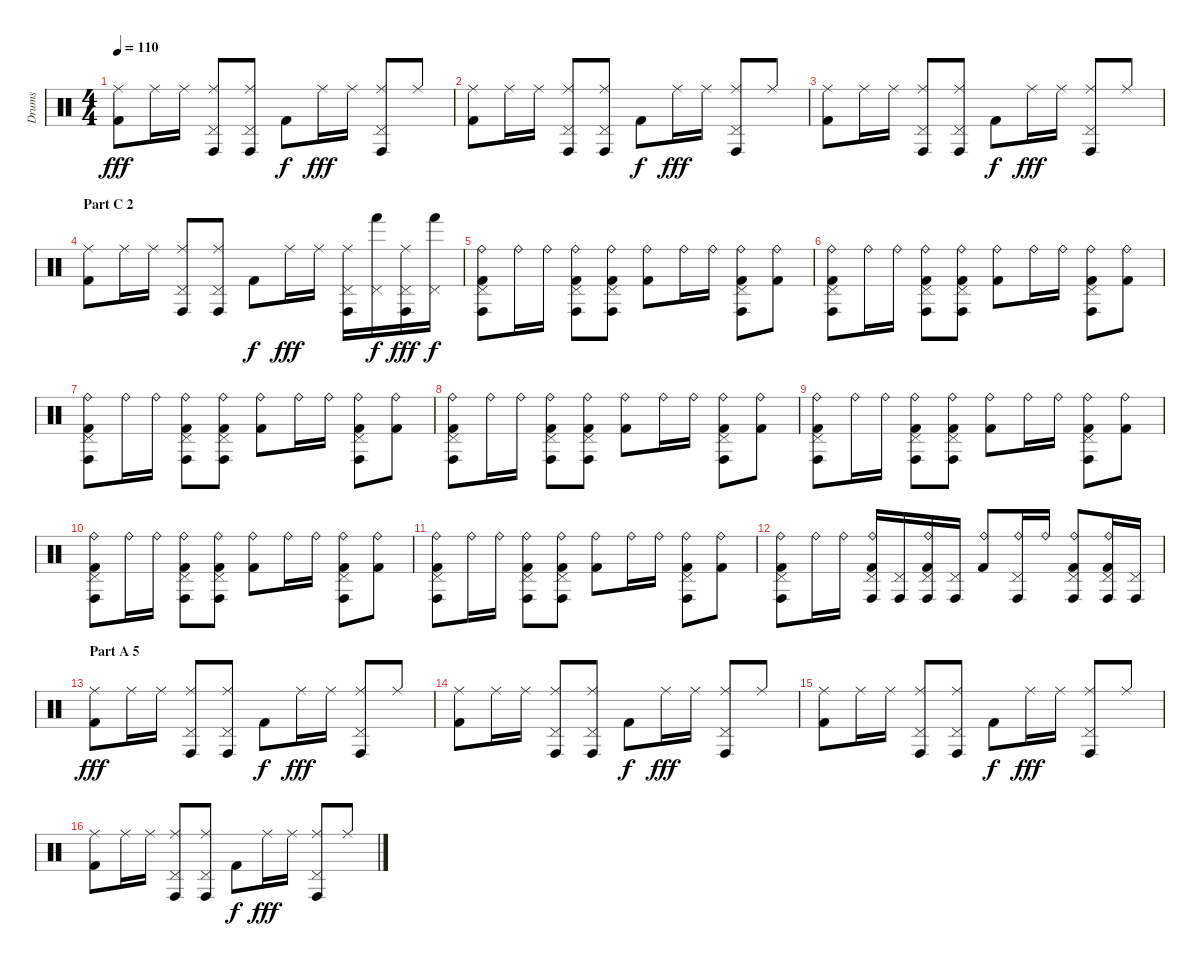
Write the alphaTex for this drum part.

\track ("Drums" "Drums") {instrument percussion}
\staff {score}
\articulation defaults
\ts (4 4)
\tempo 110
\clef neutral
\ks c
("Ride (middle)" "Kick (hit) 2").8{dy fff} "Ride (middle)".16 "Ride (middle)".16 ("Ride (middle)" "Pedal Hi-Hat (hit)" "Conga high (hit)").8 ("Ride (middle)" "Pedal Hi-Hat (hit)" "Conga high (hit)").8 "Kick (hit) 2".8{dy f} "Ride (middle)".16{dy fff} "Ride (middle)".16 ("Ride (middle)" "Pedal Hi-Hat (hit)" "Conga high (hit)").8 "Ride (middle)".8 |
("Ride (middle)" "Kick (hit) 2").8 "Ride (middle)".16 "Ride (middle)".16 ("Ride (middle)" "Pedal Hi-Hat (hit)" "Conga high (hit)").8 ("Ride (middle)" "Pedal Hi-Hat (hit)" "Conga high (hit)").8 "Kick (hit) 2".8{dy f} "Ride (middle)".16{dy fff} "Ride (middle)".16 ("Ride (middle)" "Pedal Hi-Hat (hit)" "Conga high (hit)").8 "Ride (middle)".8 |
("Ride (middle)" "Kick (hit) 2").8 "Ride (middle)".16 "Ride (middle)".16 ("Ride (middle)" "Pedal Hi-Hat (hit)" "Conga high (hit)").8 ("Ride (middle)" "Pedal Hi-Hat (hit)" "Conga high (hit)").8 "Kick (hit) 2".8{dy f} "Ride (middle)".16{dy fff} "Ride (middle)".16 ("Ride (middle)" "Pedal Hi-Hat (hit)" "Conga high (hit)").8 "Ride (middle)".8 |
\section ("" "Part C 2")
("Ride (middle)" "Kick (hit) 2").8 "Ride (middle)".16 "Ride (middle)".16 ("Ride (middle)" "Pedal Hi-Hat (hit)" "Conga high (hit)").8 ("Ride (middle)" "Pedal Hi-Hat (hit)" "Conga high (hit)").8 "Kick (hit) 2".8{dy f} "Ride (middle)".16{dy fff} "Ride (middle)".16 ("Ride (middle)" "Pedal Hi-Hat (hit)" "Conga high (hit)").16 ("Pedal Hi-Hat (hit)" "Hand (hit)").16{dy f} ("Ride (middle)" "Pedal Hi-Hat (hit)" "Conga high (hit)").16{dy fff} ("Pedal Hi-Hat (hit)" "Hand (hit)").16{dy f} |
("Ride (bell)" "Pedal Hi-Hat (hit)" "Conga high (hit)" "Kick (hit) 2").8 "Ride (bell)".16 "Ride (bell)".16 ("Ride (bell)" "Pedal Hi-Hat (hit)" "Conga high (hit)" "Kick (hit) 2").8 ("Ride (bell)" "Pedal Hi-Hat (hit)" "Conga high (hit)" "Kick (hit) 2").8 ("Ride (bell)" "Kick (hit) 2").8 "Ride (bell)".16 "Ride (bell)".16 ("Ride (bell)" "Pedal Hi-Hat (hit)" "Conga high (hit)" "Kick (hit) 2").8 ("Ride (bell)" "Kick (hit) 2").8 |
("Ride (bell)" "Pedal Hi-Hat (hit)" "Conga high (hit)" "Kick (hit) 2").8 "Ride (bell)".16 "Ride (bell)".16 ("Ride (bell)" "Pedal Hi-Hat (hit)" "Conga high (hit)" "Kick (hit) 2").8 ("Ride (bell)" "Pedal Hi-Hat (hit)" "Conga high (hit)" "Kick (hit) 2").8 ("Ride (bell)" "Kick (hit) 2").8 "Ride (bell)".16 "Ride (bell)".16 ("Ride (bell)" "Pedal Hi-Hat (hit)" "Conga high (hit)" "Kick (hit) 2").8 ("Ride (bell)" "Kick (hit) 2").8 |
("Ride (bell)" "Pedal Hi-Hat (hit)" "Conga high (hit)" "Kick (hit) 2").8 "Ride (bell)".16 "Ride (bell)".16 ("Ride (bell)" "Pedal Hi-Hat (hit)" "Conga high (hit)" "Kick (hit) 2").8 ("Ride (bell)" "Pedal Hi-Hat (hit)" "Conga high (hit)" "Kick (hit) 2").8 ("Ride (bell)" "Kick (hit) 2").8 "Ride (bell)".16 "Ride (bell)".16 ("Ride (bell)" "Pedal Hi-Hat (hit)" "Conga high (hit)" "Kick (hit) 2").8 ("Ride (bell)" "Kick (hit) 2").8 |
("Ride (bell)" "Pedal Hi-Hat (hit)" "Conga high (hit)" "Kick (hit) 2").8 "Ride (bell)".16 "Ride (bell)".16 ("Ride (bell)" "Pedal Hi-Hat (hit)" "Conga high (hit)" "Kick (hit) 2").8 ("Ride (bell)" "Pedal Hi-Hat (hit)" "Conga high (hit)" "Kick (hit) 2").8 ("Ride (bell)" "Kick (hit) 2").8 "Ride (bell)".16 "Ride (bell)".16 ("Ride (bell)" "Pedal Hi-Hat (hit)" "Conga high (hit)" "Kick (hit) 2").8 ("Ride (bell)" "Kick (hit) 2").8 |
("Ride (bell)" "Pedal Hi-Hat (hit)" "Conga high (hit)" "Kick (hit) 2").8 "Ride (bell)".16 "Ride (bell)".16 ("Ride (bell)" "Pedal Hi-Hat (hit)" "Conga high (hit)" "Kick (hit) 2").8 ("Ride (bell)" "Pedal Hi-Hat (hit)" "Conga high (hit)" "Kick (hit) 2").8 ("Ride (bell)" "Kick (hit) 2").8 "Ride (bell)".16 "Ride (bell)".16 ("Ride (bell)" "Pedal Hi-Hat (hit)" "Conga high (hit)" "Kick (hit) 2").8 ("Ride (bell)" "Kick (hit) 2").8 |
("Ride (bell)" "Pedal Hi-Hat (hit)" "Conga high (hit)" "Kick (hit) 2").8 "Ride (bell)".16 "Ride (bell)".16 ("Ride (bell)" "Pedal Hi-Hat (hit)" "Conga high (hit)" "Kick (hit) 2").8 ("Ride (bell)" "Pedal Hi-Hat (hit)" "Conga high (hit)" "Kick (hit) 2").8 ("Ride (bell)" "Kick (hit) 2").8 "Ride (bell)".16 "Ride (bell)".16 ("Ride (bell)" "Pedal Hi-Hat (hit)" "Conga high (hit)" "Kick (hit) 2").8 ("Ride (bell)" "Kick (hit) 2").8 |
("Ride (bell)" "Pedal Hi-Hat (hit)" "Conga high (hit)" "Kick (hit) 2").8 "Ride (bell)".16 "Ride (bell)".16 ("Ride (bell)" "Pedal Hi-Hat (hit)" "Conga high (hit)" "Kick (hit) 2").8 ("Ride (bell)" "Pedal Hi-Hat (hit)" "Conga high (hit)" "Kick (hit) 2").8 ("Ride (bell)" "Kick (hit) 2").8 "Ride (bell)".16 "Ride (bell)".16 ("Ride (bell)" "Pedal Hi-Hat (hit)" "Conga high (hit)" "Kick (hit) 2").8 ("Ride (bell)" "Kick (hit) 2").8 |
("Ride (bell)" "Pedal Hi-Hat (hit)" "Conga high (hit)" "Kick (hit) 2").8 "Ride (bell)".16 "Ride (bell)".16 ("Ride (bell)" "Pedal Hi-Hat (hit)" "Conga high (hit)" "Kick (hit) 2").16 ("Pedal Hi-Hat (hit)" "Conga high (hit)").16 ("Ride (bell)" "Pedal Hi-Hat (hit)" "Conga high (hit)" "Kick (hit) 2").16 ("Pedal Hi-Hat (hit)" "Conga high (hit)").16 ("Ride (bell)" "Kick (hit) 2").8 ("Ride (bell)" "Pedal Hi-Hat (hit)" "Conga high (hit)").16 "Ride (bell)".16 ("Ride (bell)" "Pedal Hi-Hat (hit)" "Conga high (hit)" "Kick (hit) 2").8 ("Ride (bell)" "Pedal Hi-Hat (hit)" "Conga high (hit)" "Kick (hit) 2").16 ("Pedal Hi-Hat (hit)" "Conga high (hit)").16 |
\section ("" "Part A 5")
("Ride (middle)" "Kick (hit) 2").8{dy fff} "Ride (middle)".16 "Ride (middle)".16 ("Ride (middle)" "Pedal Hi-Hat (hit)" "Conga high (hit)").8 ("Ride (middle)" "Pedal Hi-Hat (hit)" "Conga high (hit)").8 "Kick (hit) 2".8{dy f} "Ride (middle)".16{dy fff} "Ride (middle)".16 ("Ride (middle)" "Pedal Hi-Hat (hit)" "Conga high (hit)").8 "Ride (middle)".8 |
("Ride (middle)" "Kick (hit) 2").8 "Ride (middle)".16 "Ride (middle)".16 ("Ride (middle)" "Pedal Hi-Hat (hit)" "Conga high (hit)").8 ("Ride (middle)" "Pedal Hi-Hat (hit)" "Conga high (hit)").8 "Kick (hit) 2".8{dy f} "Ride (middle)".16{dy fff} "Ride (middle)".16 ("Ride (middle)" "Pedal Hi-Hat (hit)" "Conga high (hit)").8 "Ride (middle)".8 |
("Ride (middle)" "Kick (hit) 2").8 "Ride (middle)".16 "Ride (middle)".16 ("Ride (middle)" "Pedal Hi-Hat (hit)" "Conga high (hit)").8 ("Ride (middle)" "Pedal Hi-Hat (hit)" "Conga high (hit)").8 "Kick (hit) 2".8{dy f} "Ride (middle)".16{dy fff} "Ride (middle)".16 ("Ride (middle)" "Pedal Hi-Hat (hit)" "Conga high (hit)").8 "Ride (middle)".8 |
("Ride (middle)" "Kick (hit) 2").8 "Ride (middle)".16 "Ride (middle)".16 ("Ride (middle)" "Pedal Hi-Hat (hit)" "Conga high (hit)").8 ("Ride (middle)" "Pedal Hi-Hat (hit)" "Conga high (hit)").8 "Kick (hit) 2".8{dy f} "Ride (middle)".16{dy fff} "Ride (middle)".16 ("Ride (middle)" "Pedal Hi-Hat (hit)" "Conga high (hit)").8 "Ride (middle)".8
